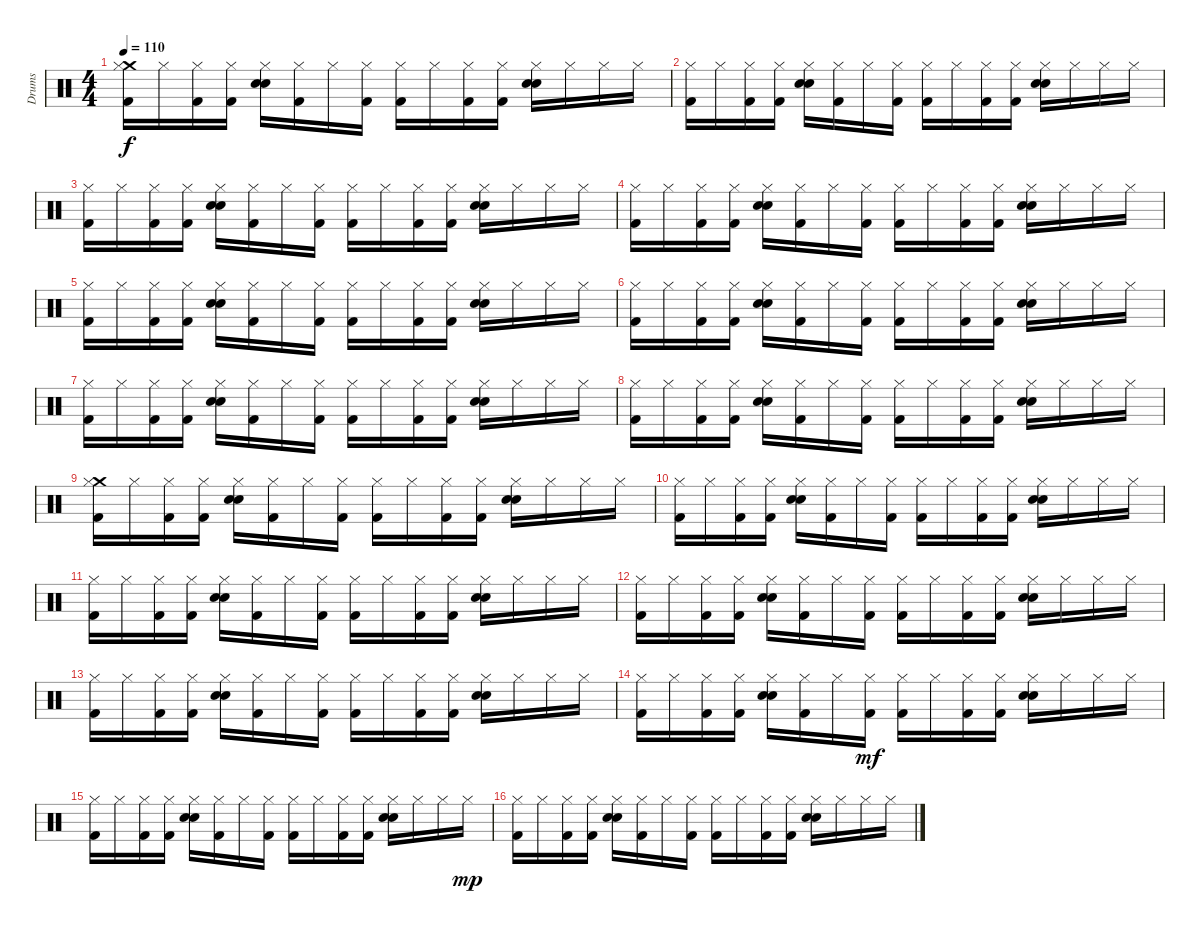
\track ("Drums" "Drums") {instrument percussion}
\staff {score}
\articulation defaults
\ts (4 4)
\tempo 110
\clef neutral
\ks c
("Crash medium (hit)" "Kick (hit) 2" "Hi-Hat (closed)").16{dy f} "Hi-Hat (closed)".16 ("Kick (hit) 2" "Hi-Hat (closed)").16 ("Kick (hit) 2" "Hi-Hat (closed)").16 ("Electric Snare (hit)" "Snare (hit) 2" "Hi-Hat (closed)").16 ("Kick (hit) 2" "Hi-Hat (closed)").16 "Hi-Hat (closed)".16 ("Kick (hit) 2" "Hi-Hat (closed)").16 ("Kick (hit) 2" "Hi-Hat (closed)").16 "Hi-Hat (closed)".16 ("Kick (hit) 2" "Hi-Hat (closed)").16 ("Kick (hit) 2" "Hi-Hat (closed)").16 ("Electric Snare (hit)" "Snare (hit) 2" "Hi-Hat (closed)").16 "Hi-Hat (closed)".16 "Hi-Hat (closed)".16 "Hi-Hat (closed)".16 |
("Kick (hit) 2" "Hi-Hat (closed)").16 "Hi-Hat (closed)".16 ("Kick (hit) 2" "Hi-Hat (closed)").16 ("Kick (hit) 2" "Hi-Hat (closed)").16 ("Electric Snare (hit)" "Snare (hit) 2" "Hi-Hat (closed)").16 ("Kick (hit) 2" "Hi-Hat (closed)").16 "Hi-Hat (closed)".16 ("Kick (hit) 2" "Hi-Hat (closed)").16 ("Kick (hit) 2" "Hi-Hat (closed)").16 "Hi-Hat (closed)".16 ("Kick (hit) 2" "Hi-Hat (closed)").16 ("Kick (hit) 2" "Hi-Hat (closed)").16 ("Electric Snare (hit)" "Snare (hit) 2" "Hi-Hat (closed)").16 "Hi-Hat (closed)".16 "Hi-Hat (closed)".16 "Hi-Hat (closed)".16 |
("Hi-Hat (closed)" "Kick (hit) 2").16 "Hi-Hat (closed)".16 ("Hi-Hat (closed)" "Kick (hit) 2").16 ("Hi-Hat (closed)" "Kick (hit) 2").16 ("Hi-Hat (closed)" "Electric Snare (hit)" "Snare (hit) 2").16 ("Hi-Hat (closed)" "Kick (hit) 2").16 "Hi-Hat (closed)".16 ("Hi-Hat (closed)" "Kick (hit) 2").16 ("Hi-Hat (closed)" "Kick (hit) 2").16 "Hi-Hat (closed)".16 ("Hi-Hat (closed)" "Kick (hit) 2").16 ("Hi-Hat (closed)" "Kick (hit) 2").16 ("Hi-Hat (closed)" "Electric Snare (hit)" "Snare (hit) 2").16 "Hi-Hat (closed)".16 "Hi-Hat (closed)".16 "Hi-Hat (closed)".16 |
("Kick (hit) 2" "Hi-Hat (closed)").16 "Hi-Hat (closed)".16 ("Kick (hit) 2" "Hi-Hat (closed)").16 ("Kick (hit) 2" "Hi-Hat (closed)").16 ("Electric Snare (hit)" "Snare (hit) 2" "Hi-Hat (closed)").16 ("Kick (hit) 2" "Hi-Hat (closed)").16 "Hi-Hat (closed)".16 ("Kick (hit) 2" "Hi-Hat (closed)").16 ("Kick (hit) 2" "Hi-Hat (closed)").16 "Hi-Hat (closed)".16 ("Kick (hit) 2" "Hi-Hat (closed)").16 ("Kick (hit) 2" "Hi-Hat (closed)").16 ("Electric Snare (hit)" "Snare (hit) 2" "Hi-Hat (closed)").16 "Hi-Hat (closed)".16 "Hi-Hat (closed)".16 "Hi-Hat (closed)".16 |
("Hi-Hat (closed)" "Kick (hit) 2").16 "Hi-Hat (closed)".16 ("Hi-Hat (closed)" "Kick (hit) 2").16 ("Hi-Hat (closed)" "Kick (hit) 2").16 ("Hi-Hat (closed)" "Electric Snare (hit)" "Snare (hit) 2").16 ("Hi-Hat (closed)" "Kick (hit) 2").16 "Hi-Hat (closed)".16 ("Hi-Hat (closed)" "Kick (hit) 2").16 ("Hi-Hat (closed)" "Kick (hit) 2").16 "Hi-Hat (closed)".16 ("Hi-Hat (closed)" "Kick (hit) 2").16 ("Hi-Hat (closed)" "Kick (hit) 2").16 ("Hi-Hat (closed)" "Electric Snare (hit)" "Snare (hit) 2").16 "Hi-Hat (closed)".16 "Hi-Hat (closed)".16 "Hi-Hat (closed)".16 |
("Kick (hit) 2" "Hi-Hat (closed)").16 "Hi-Hat (closed)".16 ("Kick (hit) 2" "Hi-Hat (closed)").16 ("Kick (hit) 2" "Hi-Hat (closed)").16 ("Electric Snare (hit)" "Snare (hit) 2" "Hi-Hat (closed)").16 ("Kick (hit) 2" "Hi-Hat (closed)").16 "Hi-Hat (closed)".16 ("Kick (hit) 2" "Hi-Hat (closed)").16 ("Kick (hit) 2" "Hi-Hat (closed)").16 "Hi-Hat (closed)".16 ("Kick (hit) 2" "Hi-Hat (closed)").16 ("Kick (hit) 2" "Hi-Hat (closed)").16 ("Electric Snare (hit)" "Snare (hit) 2" "Hi-Hat (closed)").16 "Hi-Hat (closed)".16 "Hi-Hat (closed)".16 "Hi-Hat (closed)".16 |
("Kick (hit) 2" "Hi-Hat (closed)").16 "Hi-Hat (closed)".16 ("Kick (hit) 2" "Hi-Hat (closed)").16 ("Kick (hit) 2" "Hi-Hat (closed)").16 ("Electric Snare (hit)" "Snare (hit) 2" "Hi-Hat (closed)").16 ("Kick (hit) 2" "Hi-Hat (closed)").16 "Hi-Hat (closed)".16 ("Kick (hit) 2" "Hi-Hat (closed)").16 ("Kick (hit) 2" "Hi-Hat (closed)").16 "Hi-Hat (closed)".16 ("Kick (hit) 2" "Hi-Hat (closed)").16 ("Kick (hit) 2" "Hi-Hat (closed)").16 ("Electric Snare (hit)" "Snare (hit) 2" "Hi-Hat (closed)").16 "Hi-Hat (closed)".16 "Hi-Hat (closed)".16 "Hi-Hat (closed)".16 |
("Kick (hit) 2" "Hi-Hat (closed)").16 "Hi-Hat (closed)".16 ("Kick (hit) 2" "Hi-Hat (closed)").16 ("Kick (hit) 2" "Hi-Hat (closed)").16 ("Electric Snare (hit)" "Snare (hit) 2" "Hi-Hat (closed)").16 ("Kick (hit) 2" "Hi-Hat (closed)").16 "Hi-Hat (closed)".16 ("Kick (hit) 2" "Hi-Hat (closed)").16 ("Kick (hit) 2" "Hi-Hat (closed)").16 "Hi-Hat (closed)".16 ("Kick (hit) 2" "Hi-Hat (closed)").16 ("Kick (hit) 2" "Hi-Hat (closed)").16 ("Electric Snare (hit)" "Snare (hit) 2" "Hi-Hat (closed)").16 "Hi-Hat (closed)".16 "Hi-Hat (closed)".16 "Hi-Hat (closed)".16 |
("Crash medium (hit)" "Kick (hit) 2" "Hi-Hat (closed)").16 "Hi-Hat (closed)".16 ("Kick (hit) 2" "Hi-Hat (closed)").16 ("Kick (hit) 2" "Hi-Hat (closed)").16 ("Electric Snare (hit)" "Snare (hit) 2" "Hi-Hat (closed)").16 ("Kick (hit) 2" "Hi-Hat (closed)").16 "Hi-Hat (closed)".16 ("Kick (hit) 2" "Hi-Hat (closed)").16 ("Kick (hit) 2" "Hi-Hat (closed)").16 "Hi-Hat (closed)".16 ("Kick (hit) 2" "Hi-Hat (closed)").16 ("Kick (hit) 2" "Hi-Hat (closed)").16 ("Electric Snare (hit)" "Snare (hit) 2" "Hi-Hat (closed)").16 "Hi-Hat (closed)".16 "Hi-Hat (closed)".16 "Hi-Hat (closed)".16 |
("Kick (hit) 2" "Hi-Hat (closed)").16 "Hi-Hat (closed)".16 ("Kick (hit) 2" "Hi-Hat (closed)").16 ("Kick (hit) 2" "Hi-Hat (closed)").16 ("Electric Snare (hit)" "Snare (hit) 2" "Hi-Hat (closed)").16 ("Kick (hit) 2" "Hi-Hat (closed)").16 "Hi-Hat (closed)".16 ("Kick (hit) 2" "Hi-Hat (closed)").16 ("Kick (hit) 2" "Hi-Hat (closed)").16 "Hi-Hat (closed)".16 ("Kick (hit) 2" "Hi-Hat (closed)").16 ("Kick (hit) 2" "Hi-Hat (closed)").16 ("Electric Snare (hit)" "Snare (hit) 2" "Hi-Hat (closed)").16 "Hi-Hat (closed)".16 "Hi-Hat (closed)".16 "Hi-Hat (closed)".16 |
("Kick (hit) 2" "Hi-Hat (closed)").16 "Hi-Hat (closed)".16 ("Kick (hit) 2" "Hi-Hat (closed)").16 ("Kick (hit) 2" "Hi-Hat (closed)").16 ("Electric Snare (hit)" "Snare (hit) 2" "Hi-Hat (closed)").16 ("Kick (hit) 2" "Hi-Hat (closed)").16 "Hi-Hat (closed)".16 ("Kick (hit) 2" "Hi-Hat (closed)").16 ("Kick (hit) 2" "Hi-Hat (closed)").16 "Hi-Hat (closed)".16 ("Kick (hit) 2" "Hi-Hat (closed)").16 ("Kick (hit) 2" "Hi-Hat (closed)").16 ("Electric Snare (hit)" "Snare (hit) 2" "Hi-Hat (closed)").16 "Hi-Hat (closed)".16 "Hi-Hat (closed)".16 "Hi-Hat (closed)".16 |
("Hi-Hat (closed)" "Kick (hit) 2").16 "Hi-Hat (closed)".16 ("Hi-Hat (closed)" "Kick (hit) 2").16 ("Hi-Hat (closed)" "Kick (hit) 2").16 ("Hi-Hat (closed)" "Electric Snare (hit)" "Snare (hit) 2").16 ("Hi-Hat (closed)" "Kick (hit) 2").16 "Hi-Hat (closed)".16 ("Hi-Hat (closed)" "Kick (hit) 2").16 ("Hi-Hat (closed)" "Kick (hit) 2").16 "Hi-Hat (closed)".16 ("Hi-Hat (closed)" "Kick (hit) 2").16 ("Hi-Hat (closed)" "Kick (hit) 2").16 ("Hi-Hat (closed)" "Electric Snare (hit)" "Snare (hit) 2").16 "Hi-Hat (closed)".16 "Hi-Hat (closed)".16 "Hi-Hat (closed)".16 |
("Hi-Hat (closed)" "Kick (hit) 2").16 "Hi-Hat (closed)".16 ("Hi-Hat (closed)" "Kick (hit) 2").16 ("Hi-Hat (closed)" "Kick (hit) 2").16 ("Hi-Hat (closed)" "Electric Snare (hit)" "Snare (hit) 2").16 ("Hi-Hat (closed)" "Kick (hit) 2").16 "Hi-Hat (closed)".16 ("Hi-Hat (closed)" "Kick (hit) 2").16 ("Hi-Hat (closed)" "Kick (hit) 2").16 "Hi-Hat (closed)".16 ("Hi-Hat (closed)" "Kick (hit) 2").16 ("Hi-Hat (closed)" "Kick (hit) 2").16 ("Hi-Hat (closed)" "Electric Snare (hit)" "Snare (hit) 2").16 "Hi-Hat (closed)".16 "Hi-Hat (closed)".16 "Hi-Hat (closed)".16 |
("Kick (hit) 2" "Hi-Hat (closed)").16 "Hi-Hat (closed)".16 ("Kick (hit) 2" "Hi-Hat (closed)").16 ("Kick (hit) 2" "Hi-Hat (closed)").16 ("Electric Snare (hit)" "Snare (hit) 2" "Hi-Hat (closed)").16 ("Kick (hit) 2" "Hi-Hat (closed)").16 "Hi-Hat (closed)".16 ("Kick (hit) 2" "Hi-Hat (closed)").16{dy mf} ("Kick (hit) 2" "Hi-Hat (closed)").16 "Hi-Hat (closed)".16 ("Kick (hit) 2" "Hi-Hat (closed)").16 ("Kick (hit) 2" "Hi-Hat (closed)").16 ("Electric Snare (hit)" "Snare (hit) 2" "Hi-Hat (closed)").16 "Hi-Hat (closed)".16 "Hi-Hat (closed)".16 "Hi-Hat (closed)".16 |
("Kick (hit) 2" "Hi-Hat (closed)").16 "Hi-Hat (closed)".16 ("Kick (hit) 2" "Hi-Hat (closed)").16 ("Kick (hit) 2" "Hi-Hat (closed)").16 ("Electric Snare (hit)" "Snare (hit) 2" "Hi-Hat (closed)").16 ("Kick (hit) 2" "Hi-Hat (closed)").16 "Hi-Hat (closed)".16 ("Kick (hit) 2" "Hi-Hat (closed)").16 ("Kick (hit) 2" "Hi-Hat (closed)").16 "Hi-Hat (closed)".16 ("Kick (hit) 2" "Hi-Hat (closed)").16 ("Kick (hit) 2" "Hi-Hat (closed)").16 ("Electric Snare (hit)" "Snare (hit) 2" "Hi-Hat (closed)").16 "Hi-Hat (closed)".16 "Hi-Hat (closed)".16 "Hi-Hat (closed)".16{dy mp} |
("Kick (hit) 2" "Hi-Hat (closed)").16 "Hi-Hat (closed)".16 ("Kick (hit) 2" "Hi-Hat (closed)").16 ("Kick (hit) 2" "Hi-Hat (closed)").16 ("Electric Snare (hit)" "Snare (hit) 2" "Hi-Hat (closed)").16 ("Kick (hit) 2" "Hi-Hat (closed)").16 "Hi-Hat (closed)".16 ("Kick (hit) 2" "Hi-Hat (closed)").16 ("Kick (hit) 2" "Hi-Hat (closed)").16 "Hi-Hat (closed)".16 ("Kick (hit) 2" "Hi-Hat (closed)").16 ("Kick (hit) 2" "Hi-Hat (closed)").16 ("Electric Snare (hit)" "Snare (hit) 2" "Hi-Hat (closed)").16 "Hi-Hat (closed)".16 "Hi-Hat (closed)".16 "Hi-Hat (closed)".16
